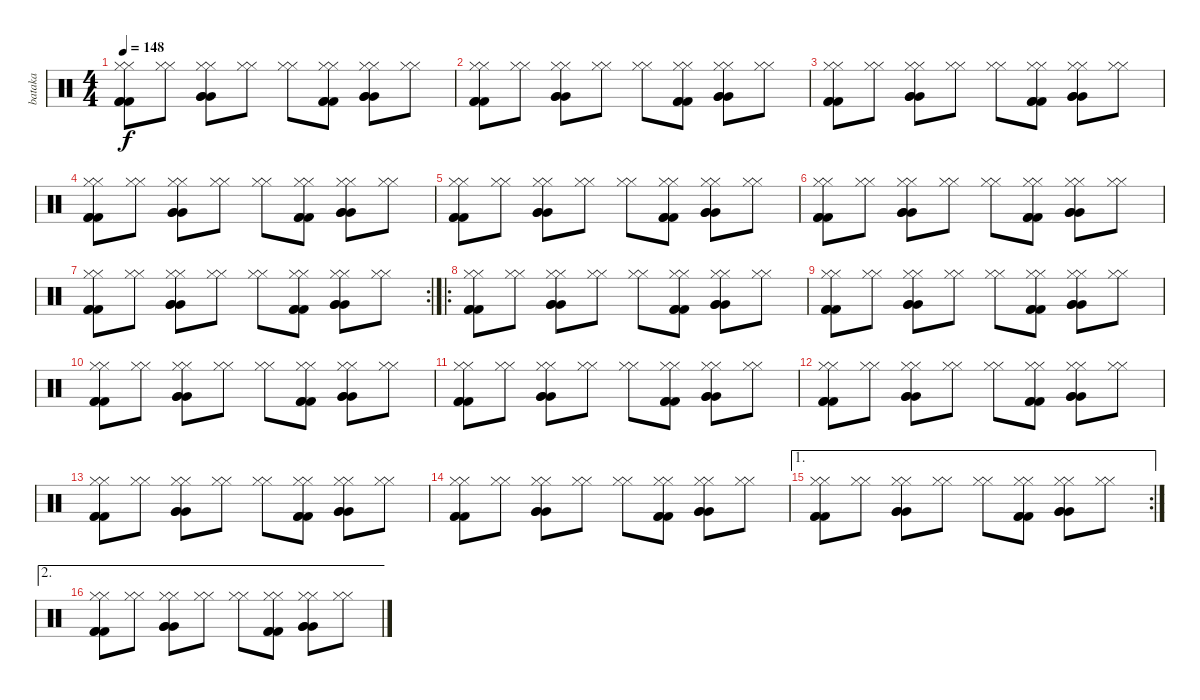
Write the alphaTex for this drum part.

\track ("bataka" "bataka") {instrument percussion}
\staff {score}
\articulation defaults
\ts (4 4)
\tempo 148
\clef neutral
\ks c
("Hi-Hat (closed)" "Hi-Hat (closed)" "Kick (hit) 2" "Kick (hit) 2" "Kick (hit) 2").8{dy f} ("Hi-Hat (closed)" "Hi-Hat (closed)").8 ("Hi-Hat (closed)" "Hi-Hat (closed)" "Very Low Tom (hit)" "Very Low Tom (hit)" "Very Low Tom (hit)").8 ("Hi-Hat (closed)" "Hi-Hat (closed)").8 ("Hi-Hat (closed)" "Hi-Hat (closed)").8 ("Hi-Hat (closed)" "Hi-Hat (closed)" "Kick (hit) 2" "Kick (hit) 2" "Kick (hit) 2").8 ("Hi-Hat (closed)" "Hi-Hat (closed)" "Very Low Tom (hit)" "Very Low Tom (hit)" "Very Low Tom (hit)").8 ("Hi-Hat (closed)" "Hi-Hat (closed)").8 |
("Hi-Hat (closed)" "Hi-Hat (closed)" "Kick (hit) 2" "Kick (hit) 2" "Kick (hit) 2").8 ("Hi-Hat (closed)" "Hi-Hat (closed)").8 ("Hi-Hat (closed)" "Hi-Hat (closed)" "Very Low Tom (hit)" "Very Low Tom (hit)" "Very Low Tom (hit)").8 ("Hi-Hat (closed)" "Hi-Hat (closed)").8 ("Hi-Hat (closed)" "Hi-Hat (closed)").8 ("Hi-Hat (closed)" "Hi-Hat (closed)" "Kick (hit) 2" "Kick (hit) 2" "Kick (hit) 2").8 ("Hi-Hat (closed)" "Hi-Hat (closed)" "Very Low Tom (hit)" "Very Low Tom (hit)" "Very Low Tom (hit)").8 ("Hi-Hat (closed)" "Hi-Hat (closed)").8 |
("Hi-Hat (closed)" "Hi-Hat (closed)" "Kick (hit) 2" "Kick (hit) 2" "Kick (hit) 2").8 ("Hi-Hat (closed)" "Hi-Hat (closed)").8 ("Hi-Hat (closed)" "Hi-Hat (closed)" "Very Low Tom (hit)" "Very Low Tom (hit)" "Very Low Tom (hit)").8 ("Hi-Hat (closed)" "Hi-Hat (closed)").8 ("Hi-Hat (closed)" "Hi-Hat (closed)").8 ("Hi-Hat (closed)" "Hi-Hat (closed)" "Kick (hit) 2" "Kick (hit) 2" "Kick (hit) 2").8 ("Hi-Hat (closed)" "Hi-Hat (closed)" "Very Low Tom (hit)" "Very Low Tom (hit)" "Very Low Tom (hit)").8 ("Hi-Hat (closed)" "Hi-Hat (closed)").8 |
("Hi-Hat (closed)" "Hi-Hat (closed)" "Kick (hit) 2" "Kick (hit) 2" "Kick (hit) 2").8 ("Hi-Hat (closed)" "Hi-Hat (closed)").8 ("Hi-Hat (closed)" "Hi-Hat (closed)" "Very Low Tom (hit)" "Very Low Tom (hit)" "Very Low Tom (hit)").8 ("Hi-Hat (closed)" "Hi-Hat (closed)").8 ("Hi-Hat (closed)" "Hi-Hat (closed)").8 ("Hi-Hat (closed)" "Hi-Hat (closed)" "Kick (hit) 2" "Kick (hit) 2" "Kick (hit) 2").8 ("Hi-Hat (closed)" "Hi-Hat (closed)" "Very Low Tom (hit)" "Very Low Tom (hit)" "Very Low Tom (hit)").8 ("Hi-Hat (closed)" "Hi-Hat (closed)").8 |
("Hi-Hat (closed)" "Hi-Hat (closed)" "Kick (hit) 2" "Kick (hit) 2" "Kick (hit) 2").8 ("Hi-Hat (closed)" "Hi-Hat (closed)").8 ("Hi-Hat (closed)" "Hi-Hat (closed)" "Very Low Tom (hit)" "Very Low Tom (hit)" "Very Low Tom (hit)").8 ("Hi-Hat (closed)" "Hi-Hat (closed)").8 ("Hi-Hat (closed)" "Hi-Hat (closed)").8 ("Hi-Hat (closed)" "Hi-Hat (closed)" "Kick (hit) 2" "Kick (hit) 2" "Kick (hit) 2").8 ("Hi-Hat (closed)" "Hi-Hat (closed)" "Very Low Tom (hit)" "Very Low Tom (hit)" "Very Low Tom (hit)").8 ("Hi-Hat (closed)" "Hi-Hat (closed)").8 |
("Hi-Hat (closed)" "Hi-Hat (closed)" "Kick (hit) 2" "Kick (hit) 2" "Kick (hit) 2").8 ("Hi-Hat (closed)" "Hi-Hat (closed)").8 ("Hi-Hat (closed)" "Hi-Hat (closed)" "Very Low Tom (hit)" "Very Low Tom (hit)" "Very Low Tom (hit)").8 ("Hi-Hat (closed)" "Hi-Hat (closed)").8 ("Hi-Hat (closed)" "Hi-Hat (closed)").8 ("Hi-Hat (closed)" "Hi-Hat (closed)" "Kick (hit) 2" "Kick (hit) 2" "Kick (hit) 2").8 ("Hi-Hat (closed)" "Hi-Hat (closed)" "Very Low Tom (hit)" "Very Low Tom (hit)" "Very Low Tom (hit)").8 ("Hi-Hat (closed)" "Hi-Hat (closed)").8 |
\rc 2
("Hi-Hat (closed)" "Hi-Hat (closed)" "Kick (hit) 2" "Kick (hit) 2" "Kick (hit) 2").8 ("Hi-Hat (closed)" "Hi-Hat (closed)").8 ("Hi-Hat (closed)" "Hi-Hat (closed)" "Very Low Tom (hit)" "Very Low Tom (hit)" "Very Low Tom (hit)").8 ("Hi-Hat (closed)" "Hi-Hat (closed)").8 ("Hi-Hat (closed)" "Hi-Hat (closed)").8 ("Hi-Hat (closed)" "Hi-Hat (closed)" "Kick (hit) 2" "Kick (hit) 2" "Kick (hit) 2").8 ("Hi-Hat (closed)" "Hi-Hat (closed)" "Very Low Tom (hit)" "Very Low Tom (hit)" "Very Low Tom (hit)").8 ("Hi-Hat (closed)" "Hi-Hat (closed)").8 |
\ro
("Hi-Hat (closed)" "Hi-Hat (closed)" "Kick (hit) 2" "Kick (hit) 2" "Kick (hit) 2").8 ("Hi-Hat (closed)" "Hi-Hat (closed)").8 ("Hi-Hat (closed)" "Hi-Hat (closed)" "Very Low Tom (hit)" "Very Low Tom (hit)" "Very Low Tom (hit)").8 ("Hi-Hat (closed)" "Hi-Hat (closed)").8 ("Hi-Hat (closed)" "Hi-Hat (closed)").8 ("Hi-Hat (closed)" "Hi-Hat (closed)" "Kick (hit) 2" "Kick (hit) 2" "Kick (hit) 2").8 ("Hi-Hat (closed)" "Hi-Hat (closed)" "Very Low Tom (hit)" "Very Low Tom (hit)" "Very Low Tom (hit)").8 ("Hi-Hat (closed)" "Hi-Hat (closed)").8 |
("Hi-Hat (closed)" "Hi-Hat (closed)" "Kick (hit) 2" "Kick (hit) 2" "Kick (hit) 2").8 ("Hi-Hat (closed)" "Hi-Hat (closed)").8 ("Hi-Hat (closed)" "Hi-Hat (closed)" "Very Low Tom (hit)" "Very Low Tom (hit)" "Very Low Tom (hit)").8 ("Hi-Hat (closed)" "Hi-Hat (closed)").8 ("Hi-Hat (closed)" "Hi-Hat (closed)").8 ("Hi-Hat (closed)" "Hi-Hat (closed)" "Kick (hit) 2" "Kick (hit) 2" "Kick (hit) 2").8 ("Hi-Hat (closed)" "Hi-Hat (closed)" "Very Low Tom (hit)" "Very Low Tom (hit)" "Very Low Tom (hit)").8 ("Hi-Hat (closed)" "Hi-Hat (closed)").8 |
("Hi-Hat (closed)" "Hi-Hat (closed)" "Kick (hit) 2" "Kick (hit) 2" "Kick (hit) 2").8 ("Hi-Hat (closed)" "Hi-Hat (closed)").8 ("Hi-Hat (closed)" "Hi-Hat (closed)" "Very Low Tom (hit)" "Very Low Tom (hit)" "Very Low Tom (hit)").8 ("Hi-Hat (closed)" "Hi-Hat (closed)").8 ("Hi-Hat (closed)" "Hi-Hat (closed)").8 ("Hi-Hat (closed)" "Hi-Hat (closed)" "Kick (hit) 2" "Kick (hit) 2" "Kick (hit) 2").8 ("Hi-Hat (closed)" "Hi-Hat (closed)" "Very Low Tom (hit)" "Very Low Tom (hit)" "Very Low Tom (hit)").8 ("Hi-Hat (closed)" "Hi-Hat (closed)").8 |
("Hi-Hat (closed)" "Hi-Hat (closed)" "Kick (hit) 2" "Kick (hit) 2" "Kick (hit) 2").8 ("Hi-Hat (closed)" "Hi-Hat (closed)").8 ("Hi-Hat (closed)" "Hi-Hat (closed)" "Very Low Tom (hit)" "Very Low Tom (hit)" "Very Low Tom (hit)").8 ("Hi-Hat (closed)" "Hi-Hat (closed)").8 ("Hi-Hat (closed)" "Hi-Hat (closed)").8 ("Hi-Hat (closed)" "Hi-Hat (closed)" "Kick (hit) 2" "Kick (hit) 2" "Kick (hit) 2").8 ("Hi-Hat (closed)" "Hi-Hat (closed)" "Very Low Tom (hit)" "Very Low Tom (hit)" "Very Low Tom (hit)").8 ("Hi-Hat (closed)" "Hi-Hat (closed)").8 |
("Hi-Hat (closed)" "Hi-Hat (closed)" "Kick (hit) 2" "Kick (hit) 2" "Kick (hit) 2").8 ("Hi-Hat (closed)" "Hi-Hat (closed)").8 ("Hi-Hat (closed)" "Hi-Hat (closed)" "Very Low Tom (hit)" "Very Low Tom (hit)" "Very Low Tom (hit)").8 ("Hi-Hat (closed)" "Hi-Hat (closed)").8 ("Hi-Hat (closed)" "Hi-Hat (closed)").8 ("Hi-Hat (closed)" "Hi-Hat (closed)" "Kick (hit) 2" "Kick (hit) 2" "Kick (hit) 2").8 ("Hi-Hat (closed)" "Hi-Hat (closed)" "Very Low Tom (hit)" "Very Low Tom (hit)" "Very Low Tom (hit)").8 ("Hi-Hat (closed)" "Hi-Hat (closed)").8 |
("Hi-Hat (closed)" "Hi-Hat (closed)" "Kick (hit) 2" "Kick (hit) 2" "Kick (hit) 2").8 ("Hi-Hat (closed)" "Hi-Hat (closed)").8 ("Hi-Hat (closed)" "Hi-Hat (closed)" "Very Low Tom (hit)" "Very Low Tom (hit)" "Very Low Tom (hit)").8 ("Hi-Hat (closed)" "Hi-Hat (closed)").8 ("Hi-Hat (closed)" "Hi-Hat (closed)").8 ("Hi-Hat (closed)" "Hi-Hat (closed)" "Kick (hit) 2" "Kick (hit) 2" "Kick (hit) 2").8 ("Hi-Hat (closed)" "Hi-Hat (closed)" "Very Low Tom (hit)" "Very Low Tom (hit)" "Very Low Tom (hit)").8 ("Hi-Hat (closed)" "Hi-Hat (closed)").8 |
("Hi-Hat (closed)" "Hi-Hat (closed)" "Kick (hit) 2" "Kick (hit) 2" "Kick (hit) 2").8 ("Hi-Hat (closed)" "Hi-Hat (closed)").8 ("Hi-Hat (closed)" "Hi-Hat (closed)" "Very Low Tom (hit)" "Very Low Tom (hit)" "Very Low Tom (hit)").8 ("Hi-Hat (closed)" "Hi-Hat (closed)").8 ("Hi-Hat (closed)" "Hi-Hat (closed)").8 ("Hi-Hat (closed)" "Hi-Hat (closed)" "Kick (hit) 2" "Kick (hit) 2" "Kick (hit) 2").8 ("Hi-Hat (closed)" "Hi-Hat (closed)" "Very Low Tom (hit)" "Very Low Tom (hit)" "Very Low Tom (hit)").8 ("Hi-Hat (closed)" "Hi-Hat (closed)").8 |
\ae 1
\rc 2
("Hi-Hat (closed)" "Hi-Hat (closed)" "Kick (hit) 2" "Kick (hit) 2" "Kick (hit) 2").8 ("Hi-Hat (closed)" "Hi-Hat (closed)").8 ("Hi-Hat (closed)" "Hi-Hat (closed)" "Very Low Tom (hit)" "Very Low Tom (hit)" "Very Low Tom (hit)").8 ("Hi-Hat (closed)" "Hi-Hat (closed)").8 ("Hi-Hat (closed)" "Hi-Hat (closed)").8 ("Hi-Hat (closed)" "Hi-Hat (closed)" "Kick (hit) 2" "Kick (hit) 2" "Kick (hit) 2").8 ("Hi-Hat (closed)" "Hi-Hat (closed)" "Very Low Tom (hit)" "Very Low Tom (hit)" "Very Low Tom (hit)").8 ("Hi-Hat (closed)" "Hi-Hat (closed)").8 |
\ae 2
("Hi-Hat (closed)" "Hi-Hat (closed)" "Kick (hit) 2" "Kick (hit) 2" "Kick (hit) 2").8 ("Hi-Hat (closed)" "Hi-Hat (closed)").8 ("Hi-Hat (closed)" "Hi-Hat (closed)" "Very Low Tom (hit)" "Very Low Tom (hit)" "Very Low Tom (hit)").8 ("Hi-Hat (closed)" "Hi-Hat (closed)").8 ("Hi-Hat (closed)" "Hi-Hat (closed)").8 ("Hi-Hat (closed)" "Hi-Hat (closed)" "Kick (hit) 2" "Kick (hit) 2" "Kick (hit) 2").8 ("Hi-Hat (closed)" "Hi-Hat (closed)" "Very Low Tom (hit)" "Very Low Tom (hit)" "Very Low Tom (hit)").8 ("Hi-Hat (closed)" "Hi-Hat (closed)").8
